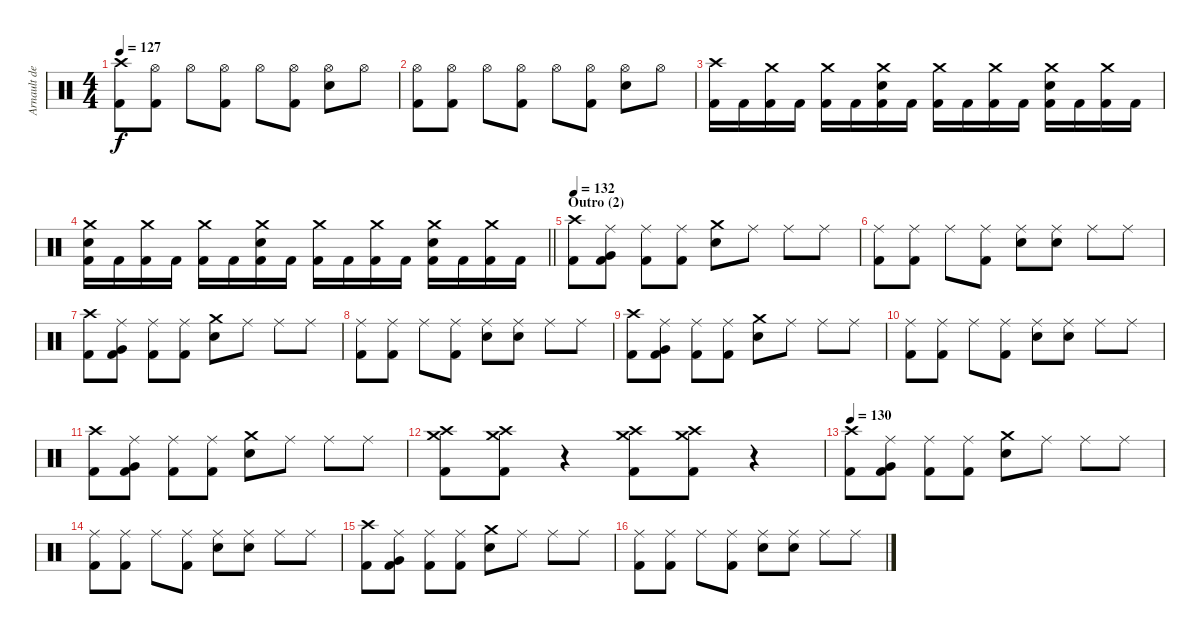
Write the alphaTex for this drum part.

\track ("Arnault de Staël" "Arnault de") {instrument percussion}
\staff {score}
\articulation defaults
\ts (4 4)
\tempo 127
\clef neutral
\ks c
("Crash high (hit)" "Kick (hit) 2").8{dy f} ("Hi-Hat (open)" "Kick (hit) 2").8 "Hi-Hat (open)".8 ("Hi-Hat (open)" "Kick (hit) 2").8 "Hi-Hat (open)".8 ("Hi-Hat (open)" "Kick (hit) 2").8 ("Hi-Hat (open)" "Electric Snare (hit)").8 "Hi-Hat (open)".8 |
("Hi-Hat (open)" "Kick (hit) 2").8 ("Hi-Hat (open)" "Kick (hit) 2").8 "Hi-Hat (open)".8 ("Hi-Hat (open)" "Kick (hit) 2").8 "Hi-Hat (open)".8 ("Hi-Hat (open)" "Kick (hit) 2").8 ("Hi-Hat (open)" "Electric Snare (hit)").8 "Hi-Hat (open)".8 |
("Crash high (hit)" "Kick (hit) 2").16 "Kick (hit) 2".16 ("Crash medium (hit)" "Kick (hit) 2").16 "Kick (hit) 2".16 ("Crash medium (hit)" "Kick (hit) 2").16 "Kick (hit) 2".16 ("Crash medium (hit)" "Electric Snare (hit)" "Kick (hit) 2").16 "Kick (hit) 2".16 ("Crash medium (hit)" "Kick (hit) 2").16 "Kick (hit) 2".16 ("Crash medium (hit)" "Kick (hit) 2").16 "Kick (hit) 2".16 ("Crash medium (hit)" "Electric Snare (hit)" "Kick (hit) 2").16 "Kick (hit) 2".16 ("Crash medium (hit)" "Kick (hit) 2").16 "Kick (hit) 2".16 |
\barLineRight lightlight
("Crash medium (hit)" "Electric Snare (hit)" "Kick (hit) 2").16 "Kick (hit) 2".16 ("Crash medium (hit)" "Kick (hit) 2").16 "Kick (hit) 2".16 ("Crash medium (hit)" "Kick (hit) 2").16 "Kick (hit) 2".16 ("Crash medium (hit)" "Electric Snare (hit)" "Kick (hit) 2").16 "Kick (hit) 2".16 ("Crash medium (hit)" "Kick (hit) 2").16 "Kick (hit) 2".16 ("Crash medium (hit)" "Kick (hit) 2").16 "Kick (hit) 2".16 ("Crash medium (hit)" "Electric Snare (hit)" "Kick (hit) 2").16 "Kick (hit) 2".16 ("Crash medium (hit)" "Kick (hit) 2").16 "Kick (hit) 2".16 |
\section ("" "Outro (2)")
\tempo 132
("Crash high (hit)" "Kick (hit) 2").8 ("Ride (middle)" "Very Low Tom (hit)" "Kick (hit) 2").8 ("Ride (middle)" "Kick (hit) 2").8 ("Ride (middle)" "Kick (hit) 2").8 ("Crash medium (hit)" "Electric Snare (hit)").8 "Ride (middle)".8 "Ride (middle)".8 "Ride (middle)".8 |
("Ride (middle)" "Kick (hit) 2").8 ("Ride (middle)" "Kick (hit) 2").8 "Ride (middle)".8 ("Ride (middle)" "Kick (hit) 2").8 ("Ride (middle)" "Electric Snare (hit)").8 ("Ride (middle)" "Electric Snare (hit)").8 "Ride (middle)".8 "Ride (middle)".8 |
("Crash high (hit)" "Kick (hit) 2").8 ("Ride (middle)" "Very Low Tom (hit)" "Kick (hit) 2").8 ("Ride (middle)" "Kick (hit) 2").8 ("Ride (middle)" "Kick (hit) 2").8 ("Crash medium (hit)" "Electric Snare (hit)").8 "Ride (middle)".8 "Ride (middle)".8 "Ride (middle)".8 |
("Ride (middle)" "Kick (hit) 2").8 ("Ride (middle)" "Kick (hit) 2").8 "Ride (middle)".8 ("Ride (middle)" "Kick (hit) 2").8 ("Ride (middle)" "Electric Snare (hit)").8 ("Ride (middle)" "Electric Snare (hit)").8 "Ride (middle)".8 "Ride (middle)".8 |
("Crash high (hit)" "Kick (hit) 2").8 ("Ride (middle)" "Very Low Tom (hit)" "Kick (hit) 2").8 ("Ride (middle)" "Kick (hit) 2").8 ("Ride (middle)" "Kick (hit) 2").8 ("Crash medium (hit)" "Electric Snare (hit)").8 "Ride (middle)".8 "Ride (middle)".8 "Ride (middle)".8 |
("Ride (middle)" "Kick (hit) 2").8 ("Ride (middle)" "Kick (hit) 2").8 "Ride (middle)".8 ("Ride (middle)" "Kick (hit) 2").8 ("Ride (middle)" "Electric Snare (hit)").8 ("Ride (middle)" "Electric Snare (hit)").8 "Ride (middle)".8 "Ride (middle)".8 |
("Crash high (hit)" "Kick (hit) 2").8 ("Ride (middle)" "Very Low Tom (hit)" "Kick (hit) 2").8 ("Ride (middle)" "Kick (hit) 2").8 ("Ride (middle)" "Kick (hit) 2").8 ("Crash medium (hit)" "Electric Snare (hit)").8 "Ride (middle)".8 "Ride (middle)".8 "Ride (middle)".8 |
("Crash high (hit)" "Crash medium (hit)" "Kick (hit) 2").8 ("Crash high (hit)" "Crash medium (hit)" "Kick (hit) 2").8 r.4 ("Crash high (hit)" "Crash medium (hit)" "Kick (hit) 2").8 ("Crash high (hit)" "Crash medium (hit)" "Kick (hit) 2").8 r.4 |
\tempo 130
("Crash high (hit)" "Kick (hit) 2").8 ("Ride (middle)" "Very Low Tom (hit)" "Kick (hit) 2").8 ("Ride (middle)" "Kick (hit) 2").8 ("Ride (middle)" "Kick (hit) 2").8 ("Crash medium (hit)" "Electric Snare (hit)").8 "Ride (middle)".8 "Ride (middle)".8 "Ride (middle)".8 |
("Ride (middle)" "Kick (hit) 2").8 ("Ride (middle)" "Kick (hit) 2").8 "Ride (middle)".8 ("Ride (middle)" "Kick (hit) 2").8 ("Ride (middle)" "Electric Snare (hit)").8 ("Ride (middle)" "Electric Snare (hit)").8 "Ride (middle)".8 "Ride (middle)".8 |
("Crash high (hit)" "Kick (hit) 2").8 ("Ride (middle)" "Very Low Tom (hit)" "Kick (hit) 2").8 ("Ride (middle)" "Kick (hit) 2").8 ("Ride (middle)" "Kick (hit) 2").8 ("Crash medium (hit)" "Electric Snare (hit)").8 "Ride (middle)".8 "Ride (middle)".8 "Ride (middle)".8 |
("Ride (middle)" "Kick (hit) 2").8 ("Ride (middle)" "Kick (hit) 2").8 "Ride (middle)".8 ("Ride (middle)" "Kick (hit) 2").8 ("Ride (middle)" "Electric Snare (hit)").8 ("Ride (middle)" "Electric Snare (hit)").8 "Ride (middle)".8 "Ride (middle)".8
